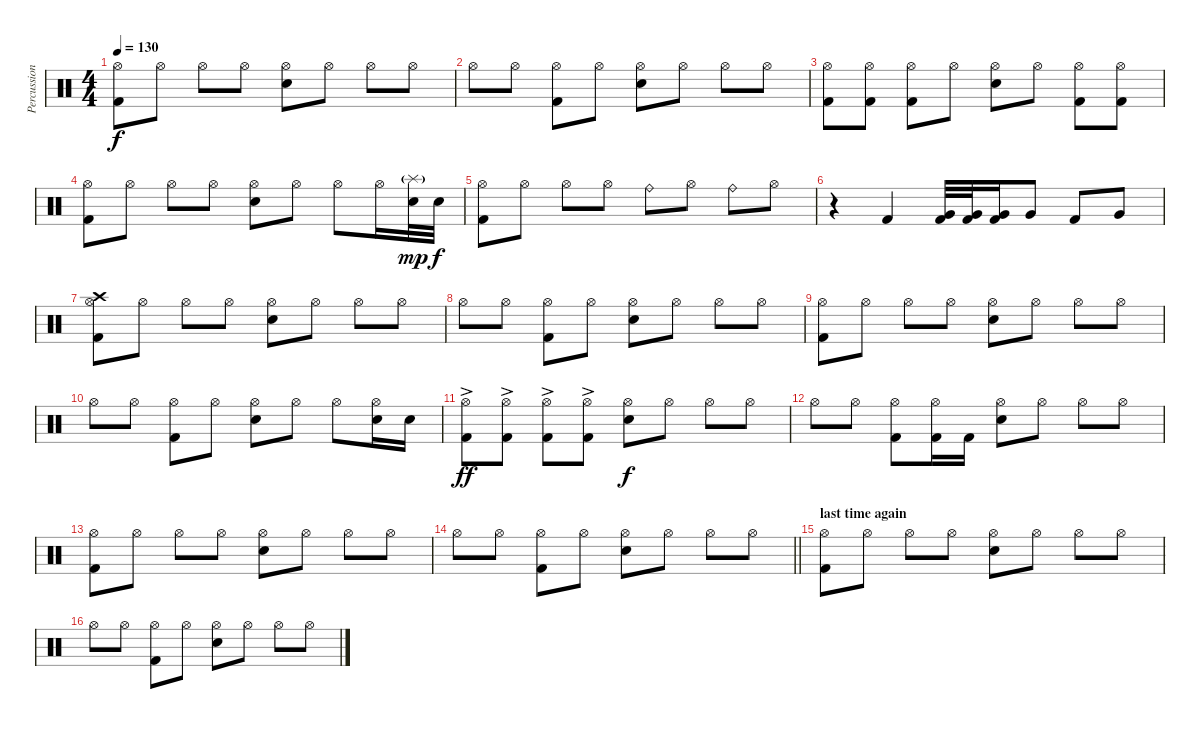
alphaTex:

\track ("Percussion" "Percussion") {instrument percussion}
\staff {score}
\articulation defaults
\ts (4 4)
\tempo 130
\clef neutral
\ks c
("Kick (hit) 2" "Hi-Hat (open)").8{dy f} "Hi-Hat (open)".8 "Hi-Hat (open)".8 "Hi-Hat (open)".8 ("Electric Snare (hit)" "Hi-Hat (open)").8 "Hi-Hat (open)".8 "Hi-Hat (open)".8 "Hi-Hat (open)".8 |
"Hi-Hat (open)".8 "Hi-Hat (open)".8 ("Kick (hit) 2" "Hi-Hat (open)").8 "Hi-Hat (open)".8 ("Electric Snare (hit)" "Hi-Hat (open)").8 "Hi-Hat (open)".8 "Hi-Hat (open)".8 "Hi-Hat (open)".8 |
("Kick (hit) 2" "Hi-Hat (open)").8 ("Kick (hit) 2" "Hi-Hat (open)").8 ("Kick (hit) 2" "Hi-Hat (open)").8 "Hi-Hat (open)".8 ("Electric Snare (hit)" "Hi-Hat (open)").8 "Hi-Hat (open)".8 ("Kick (hit) 2" "Hi-Hat (open)").8 ("Kick (hit) 2" "Hi-Hat (open)").8 |
("Kick (hit) 2" "Hi-Hat (open)").8 "Hi-Hat (open)".8 "Hi-Hat (open)".8 "Hi-Hat (open)".8 ("Electric Snare (hit)" "Hi-Hat (open)").8 "Hi-Hat (open)".8 "Hi-Hat (open)".8 "Hi-Hat (open)".16 ("Electric Snare (hit)" "Splash (hit)"{g}).32{dy mp} "Electric Snare (hit)".32{dy f} |
("Kick (hit) 2" "Hi-Hat (open)").8 "Hi-Hat (open)".8 "Hi-Hat (open)".8 "Hi-Hat (open)".8 "Ride (bell)".8 "Hi-Hat (open)".8 "Ride (bell)".8 "Hi-Hat (open)".8 |
r.4 "Kick (hit) 2".4 ("Kick (hit) 2" "Very Low Tom (hit)").32 ("Kick (hit) 2" "Very Low Tom (hit)").32 ("Kick (hit) 2" "Very Low Tom (hit)").16 "Very Low Tom (hit)".8 "Kick (hit) 2".8 "Very Low Tom (hit)".8 |
("Kick (hit) 2" "Crash high (hit)" "Hi-Hat (open)").8 "Hi-Hat (open)".8 "Hi-Hat (open)".8 "Hi-Hat (open)".8 ("Electric Snare (hit)" "Hi-Hat (open)").8 "Hi-Hat (open)".8 "Hi-Hat (open)".8 "Hi-Hat (open)".8 |
"Hi-Hat (open)".8 "Hi-Hat (open)".8 ("Kick (hit) 2" "Hi-Hat (open)").8 "Hi-Hat (open)".8 ("Electric Snare (hit)" "Hi-Hat (open)").8 "Hi-Hat (open)".8 "Hi-Hat (open)".8 "Hi-Hat (open)".8 |
("Kick (hit) 2" "Hi-Hat (open)").8 "Hi-Hat (open)".8 "Hi-Hat (open)".8 "Hi-Hat (open)".8 ("Electric Snare (hit)" "Hi-Hat (open)").8 "Hi-Hat (open)".8 "Hi-Hat (open)".8 "Hi-Hat (open)".8 |
"Hi-Hat (open)".8 "Hi-Hat (open)".8 ("Kick (hit) 2" "Hi-Hat (open)").8 "Hi-Hat (open)".8 ("Electric Snare (hit)" "Hi-Hat (open)").8 "Hi-Hat (open)".8 "Hi-Hat (open)".8 ("Electric Snare (hit)" "Hi-Hat (open)").16 "Electric Snare (hit)".16 |
("Kick (hit) 2" "Hi-Hat (open)"{ac}).8{dy ff} ("Kick (hit) 2" "Hi-Hat (open)"{ac}).8 ("Kick (hit) 2" "Hi-Hat (open)"{ac}).8 ("Kick (hit) 2" "Hi-Hat (open)"{ac}).8 ("Electric Snare (hit)" "Hi-Hat (open)").8{dy f} "Hi-Hat (open)".8 "Hi-Hat (open)".8 "Hi-Hat (open)".8 |
"Hi-Hat (open)".8 "Hi-Hat (open)".8 ("Kick (hit) 2" "Hi-Hat (open)").8 ("Kick (hit) 2" "Hi-Hat (open)").16 "Kick (hit) 2".16 ("Electric Snare (hit)" "Hi-Hat (open)").8 "Hi-Hat (open)".8 "Hi-Hat (open)".8 "Hi-Hat (open)".8 |
("Kick (hit) 2" "Hi-Hat (open)").8 "Hi-Hat (open)".8 "Hi-Hat (open)".8 "Hi-Hat (open)".8 ("Electric Snare (hit)" "Hi-Hat (open)").8 "Hi-Hat (open)".8 "Hi-Hat (open)".8 "Hi-Hat (open)".8 |
\barLineRight lightlight "Hi-Hat (open)".8 "Hi-Hat (open)".8
("Kick (hit) 2" "Hi-Hat (open)").8 "Hi-Hat (open)".8 ("Electric Snare (hit)" "Hi-Hat (open)").8 "Hi-Hat (open)".8 "Hi-Hat (open)".8 "Hi-Hat (open)".8 |
\section ("" "last time again")
("Kick (hit) 2" "Hi-Hat (open)").8 "Hi-Hat (open)".8 "Hi-Hat (open)".8 "Hi-Hat (open)".8 ("Electric Snare (hit)" "Hi-Hat (open)").8 "Hi-Hat (open)".8 "Hi-Hat (open)".8 "Hi-Hat (open)".8 |
"Hi-Hat (open)".8 "Hi-Hat (open)".8 ("Kick (hit) 2" "Hi-Hat (open)").8 "Hi-Hat (open)".8 ("Electric Snare (hit)" "Hi-Hat (open)").8 "Hi-Hat (open)".8 "Hi-Hat (open)".8 "Hi-Hat (open)".8
